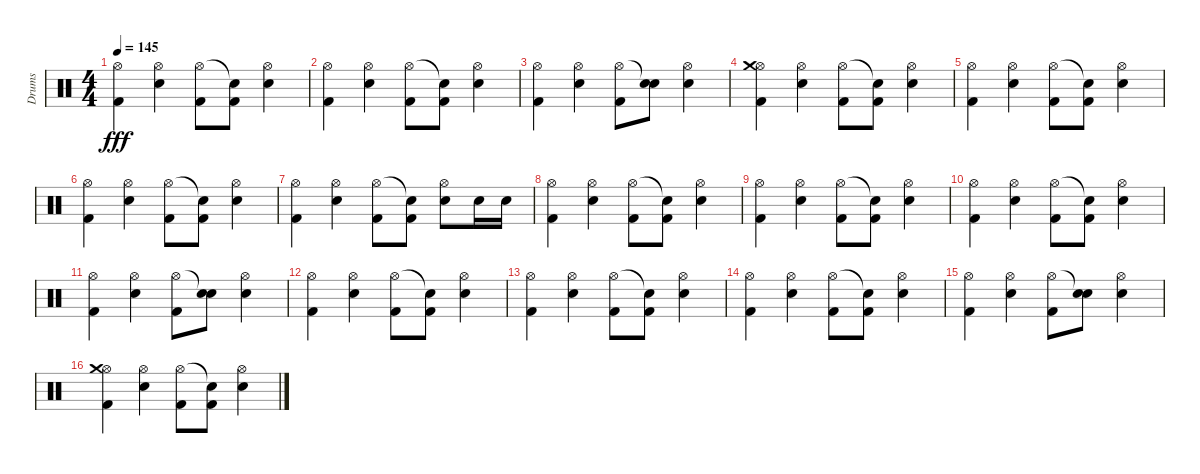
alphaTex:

\track ("Drums" "Drums") {instrument percussion}
\staff {score}
\articulation defaults
\ts (4 4)
\tempo 145
\clef neutral
\ks c
("Hi-Hat (open)" "Kick (hit) 2").4{dy fff} ("Hi-Hat (open)" "Electric Snare (hit)").4 ("Hi-Hat (open)" "Kick (hit) 2").8 ("Snare (hit)"{t} "Kick (hit) 2").8 ("Hi-Hat (open)" "Electric Snare (hit)").4 |
("Hi-Hat (open)" "Kick (hit) 2").4 ("Hi-Hat (open)" "Electric Snare (hit)").4 ("Hi-Hat (open)" "Kick (hit) 2").8 ("Snare (hit)"{t} "Kick (hit) 2").8 ("Hi-Hat (open)" "Electric Snare (hit)").4 |
("Hi-Hat (open)" "Kick (hit) 2").4 ("Hi-Hat (open)" "Electric Snare (hit)").4 ("Hi-Hat (open)" "Kick (hit) 2").8 ("Snare (hit)"{t} "Electric Snare (hit)").8 ("Hi-Hat (open)" "Electric Snare (hit)").4 |
("Hi-Hat (open)" "Kick (hit) 2" "Crash medium (hit)").4 ("Hi-Hat (open)" "Electric Snare (hit)").4 ("Hi-Hat (open)" "Kick (hit) 2").8 ("Snare (hit)"{t} "Kick (hit) 2").8 ("Hi-Hat (open)" "Electric Snare (hit)").4 |
("Hi-Hat (open)" "Kick (hit) 2").4 ("Hi-Hat (open)" "Electric Snare (hit)").4 ("Hi-Hat (open)" "Kick (hit) 2").8 ("Snare (hit)"{t} "Kick (hit) 2").8 ("Hi-Hat (open)" "Electric Snare (hit)").4 |
("Hi-Hat (open)" "Kick (hit) 2").4 ("Hi-Hat (open)" "Electric Snare (hit)").4 ("Hi-Hat (open)" "Kick (hit) 2").8 ("Snare (hit)"{t} "Kick (hit) 2").8 ("Hi-Hat (open)" "Electric Snare (hit)").4 |
("Hi-Hat (open)" "Kick (hit) 2").4 ("Hi-Hat (open)" "Electric Snare (hit)").4 ("Hi-Hat (open)" "Kick (hit) 2").8 ("Snare (hit)"{t} "Kick (hit) 2").8 ("Hi-Hat (open)" "Electric Snare (hit)").8 "Electric Snare (hit)".16 "Electric Snare (hit)".16 |
("Hi-Hat (open)" "Kick (hit) 2").4 ("Hi-Hat (open)" "Electric Snare (hit)").4 ("Hi-Hat (open)" "Kick (hit) 2").8 ("Snare (hit)"{t} "Kick (hit) 2").8 ("Hi-Hat (open)" "Electric Snare (hit)").4 |
("Hi-Hat (open)" "Kick (hit) 2").4 ("Hi-Hat (open)" "Electric Snare (hit)").4 ("Hi-Hat (open)" "Kick (hit) 2").8 ("Snare (hit)"{t} "Kick (hit) 2").8 ("Hi-Hat (open)" "Electric Snare (hit)").4 |
("Hi-Hat (open)" "Kick (hit) 2").4 ("Hi-Hat (open)" "Electric Snare (hit)").4 ("Hi-Hat (open)" "Kick (hit) 2").8 ("Snare (hit)"{t} "Kick (hit) 2").8 ("Hi-Hat (open)" "Electric Snare (hit)").4 |
("Hi-Hat (open)" "Kick (hit) 2").4 ("Hi-Hat (open)" "Electric Snare (hit)").4 ("Hi-Hat (open)" "Kick (hit) 2").8 ("Snare (hit)"{t} "Electric Snare (hit)").8 ("Hi-Hat (open)" "Electric Snare (hit)").4 |
("Hi-Hat (open)" "Kick (hit) 2").4 ("Hi-Hat (open)" "Electric Snare (hit)").4 ("Hi-Hat (open)" "Kick (hit) 2").8 ("Snare (hit)"{t} "Kick (hit) 2").8 ("Hi-Hat (open)" "Electric Snare (hit)").4 |
("Hi-Hat (open)" "Kick (hit) 2").4 ("Hi-Hat (open)" "Electric Snare (hit)").4 ("Hi-Hat (open)" "Kick (hit) 2").8 ("Snare (hit)"{t} "Kick (hit) 2").8 ("Hi-Hat (open)" "Electric Snare (hit)").4 |
("Hi-Hat (open)" "Kick (hit) 2").4 ("Hi-Hat (open)" "Electric Snare (hit)").4 ("Hi-Hat (open)" "Kick (hit) 2").8 ("Snare (hit)"{t} "Kick (hit) 2").8 ("Hi-Hat (open)" "Electric Snare (hit)").4 |
("Hi-Hat (open)" "Kick (hit) 2").4 ("Hi-Hat (open)" "Electric Snare (hit)").4 ("Hi-Hat (open)" "Kick (hit) 2").8 ("Snare (hit)"{t} "Electric Snare (hit)").8 ("Hi-Hat (open)" "Electric Snare (hit)").4 |
("Hi-Hat (open)" "Kick (hit) 2" "Crash medium (hit)").4 ("Hi-Hat (open)" "Electric Snare (hit)").4 ("Hi-Hat (open)" "Kick (hit) 2").8 ("Snare (hit)"{t} "Kick (hit) 2").8 ("Hi-Hat (open)" "Electric Snare (hit)").4
